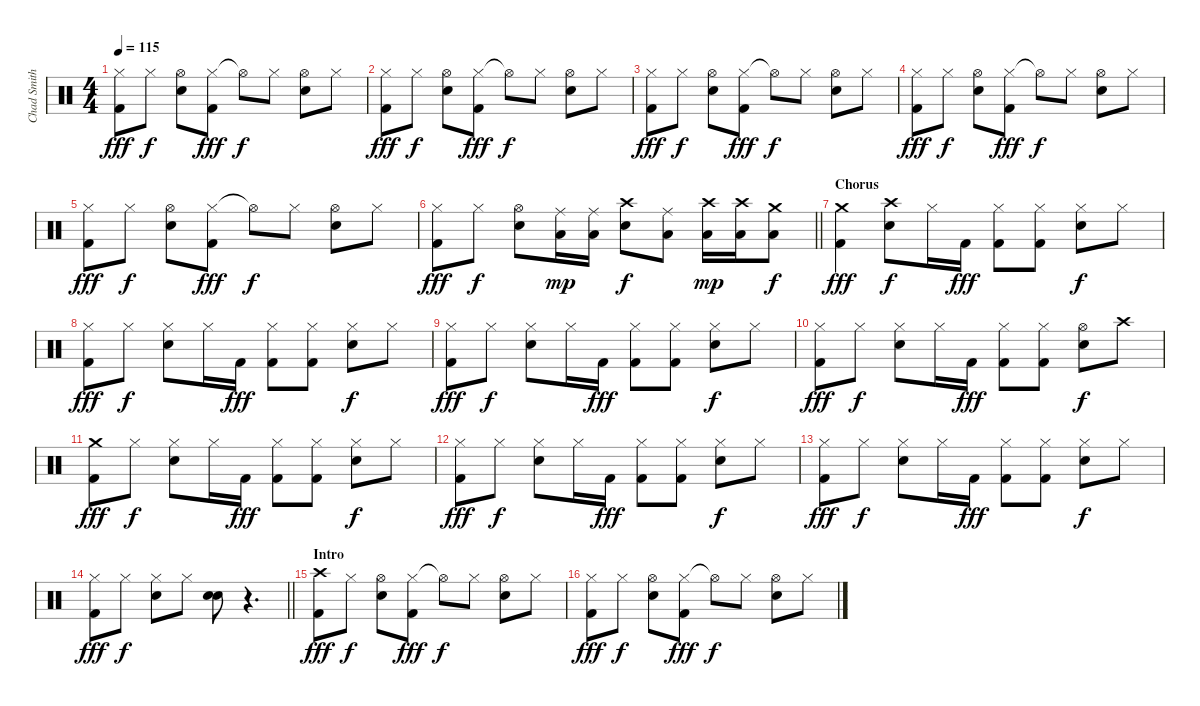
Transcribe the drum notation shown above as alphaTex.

\track ("Chad Smith - Drums" "Chad Smith") {instrument percussion}
\staff {score}
\articulation defaults
\ts (4 4)
\tempo 115
\clef neutral
\ks c
("Hi-Hat (closed)" "Kick (hit) 2").8{dy fff} "Hi-Hat (closed)".8{dy f} ("Hi-Hat (open)" "Electric Snare (hit)").8 ("Hi-Hat (closed)" "Kick (hit) 2").8{dy fff} "Hi-Hat (open)"{t}.8{dy f} "Hi-Hat (closed)".8 ("Hi-Hat (open)" "Electric Snare (hit)").8 "Hi-Hat (closed)".8 |
("Hi-Hat (closed)" "Kick (hit) 2").8{dy fff} "Hi-Hat (closed)".8{dy f} ("Hi-Hat (open)" "Electric Snare (hit)").8 ("Hi-Hat (closed)" "Kick (hit) 2").8{dy fff} "Hi-Hat (open)"{t}.8{dy f} "Hi-Hat (closed)".8 ("Hi-Hat (open)" "Electric Snare (hit)").8 "Hi-Hat (closed)".8 |
("Hi-Hat (closed)" "Kick (hit) 2").8{dy fff} "Hi-Hat (closed)".8{dy f} ("Hi-Hat (open)" "Electric Snare (hit)").8 ("Hi-Hat (closed)" "Kick (hit) 2").8{dy fff} "Hi-Hat (open)"{t}.8{dy f} "Hi-Hat (closed)".8 ("Hi-Hat (open)" "Electric Snare (hit)").8 "Hi-Hat (closed)".8 |
("Hi-Hat (closed)" "Kick (hit) 2").8{dy fff} "Hi-Hat (closed)".8{dy f} ("Hi-Hat (open)" "Electric Snare (hit)").8 ("Hi-Hat (closed)" "Kick (hit) 2").8{dy fff} "Hi-Hat (open)"{t}.8{dy f} "Hi-Hat (closed)".8 ("Hi-Hat (open)" "Electric Snare (hit)").8 "Hi-Hat (closed)".8 |
("Hi-Hat (closed)" "Kick (hit) 2").8{dy fff} "Hi-Hat (closed)".8{dy f} ("Hi-Hat (open)" "Electric Snare (hit)").8 ("Hi-Hat (closed)" "Kick (hit) 2").8{dy fff} "Hi-Hat (open)"{t}.8{dy f} "Hi-Hat (closed)".8 ("Hi-Hat (open)" "Electric Snare (hit)").8 "Hi-Hat (closed)".8 |
\barLineRight lightlight
("Hi-Hat (closed)" "Kick (hit) 2").8{dy fff} "Hi-Hat (closed)".8{dy f} ("Hi-Hat (open)" "Electric Snare (hit)").8 ("Ride (middle)" "Low Tom (hit)").16{dy mp} ("Ride (middle)" "Low Tom (hit)").16 ("Crash high (hit)" "Electric Snare (hit)").8{dy f} ("Ride (middle)" "Low Tom (hit)").8 ("Crash high (hit)" "Low Tom (hit)").16{dy mp} ("Crash high (hit)" "Low Tom (hit)").16 ("Crash medium (hit)" "Low Floor Tom (hit)").8{dy f} |
\section ("" "Chorus")
("Crash medium (hit)" "Kick (hit) 2").4{dy fff} ("Crash high (hit)" "Electric Snare (hit)").8{dy f} "Hi-Hat (closed)".16 "Kick (hit) 2".16{dy fff} ("Hi-Hat (closed)" "Kick (hit) 2").8 ("Hi-Hat (closed)" "Kick (hit) 2").8 ("Hi-Hat (closed)" "Electric Snare (hit)").8{dy f} "Hi-Hat (closed)".8 |
("Hi-Hat (closed)" "Kick (hit) 2").8{dy fff} "Hi-Hat (closed)".8{dy f} ("Hi-Hat (closed)" "Electric Snare (hit)").8 "Hi-Hat (closed)".16 "Kick (hit) 2".16{dy fff} ("Hi-Hat (closed)" "Kick (hit) 2").8 ("Hi-Hat (closed)" "Kick (hit) 2").8 ("Hi-Hat (closed)" "Electric Snare (hit)").8{dy f} "Hi-Hat (closed)".8 |
("Hi-Hat (closed)" "Kick (hit) 2").8{dy fff} "Hi-Hat (closed)".8{dy f} ("Hi-Hat (closed)" "Electric Snare (hit)").8 "Hi-Hat (closed)".16 "Kick (hit) 2".16{dy fff} ("Hi-Hat (closed)" "Kick (hit) 2").8 ("Hi-Hat (closed)" "Kick (hit) 2").8 ("Hi-Hat (closed)" "Electric Snare (hit)").8{dy f} "Hi-Hat (closed)".8 |
("Hi-Hat (closed)" "Kick (hit) 2").8{dy fff} "Hi-Hat (closed)".8{dy f} ("Hi-Hat (closed)" "Electric Snare (hit)").8 "Hi-Hat (closed)".16 "Kick (hit) 2".16{dy fff} ("Hi-Hat (closed)" "Kick (hit) 2").8 ("Hi-Hat (closed)" "Kick (hit) 2").8 ("Hi-Hat (open)" "Electric Snare (hit)").8{dy f} "Crash high (hit)".8 |
("Crash medium (hit)" "Kick (hit) 2").8{dy fff} "Hi-Hat (closed)".8{dy f} ("Hi-Hat (closed)" "Electric Snare (hit)").8 "Hi-Hat (closed)".16 "Kick (hit) 2".16{dy fff} ("Hi-Hat (closed)" "Kick (hit) 2").8 ("Hi-Hat (closed)" "Kick (hit) 2").8 ("Hi-Hat (closed)" "Electric Snare (hit)").8{dy f} "Hi-Hat (closed)".8 |
("Hi-Hat (closed)" "Kick (hit) 2").8{dy fff} "Hi-Hat (closed)".8{dy f} ("Hi-Hat (closed)" "Electric Snare (hit)").8 "Hi-Hat (closed)".16 "Kick (hit) 2".16{dy fff} ("Hi-Hat (closed)" "Kick (hit) 2").8 ("Hi-Hat (closed)" "Kick (hit) 2").8 ("Hi-Hat (closed)" "Electric Snare (hit)").8{dy f} "Hi-Hat (closed)".8 |
("Hi-Hat (closed)" "Kick (hit) 2").8{dy fff} "Hi-Hat (closed)".8{dy f} ("Hi-Hat (closed)" "Electric Snare (hit)").8 "Hi-Hat (closed)".16 "Kick (hit) 2".16{dy fff} ("Hi-Hat (closed)" "Kick (hit) 2").8 ("Hi-Hat (closed)" "Kick (hit) 2").8 ("Hi-Hat (closed)" "Electric Snare (hit)").8{dy f} "Hi-Hat (closed)".8 |
\barLineRight lightlight
("Hi-Hat (closed)" "Kick (hit) 2").8{dy fff} "Hi-Hat (closed)".8{dy f} ("Hi-Hat (closed)" "Electric Snare (hit)").8 "Hi-Hat (closed)".8 ("Electric Snare (hit)" "Electric Snare (hit)").8 r.4{d} |
\section ("" "Intro")
("Crash high (hit)" "Kick (hit) 2").8{dy fff} "Hi-Hat (closed)".8{dy f} ("Hi-Hat (open)" "Electric Snare (hit)").8 ("Hi-Hat (closed)" "Kick (hit) 2").8{dy fff} "Hi-Hat (open)"{t}.8{dy f} "Hi-Hat (closed)".8 ("Hi-Hat (open)" "Electric Snare (hit)").8 "Hi-Hat (closed)".8 |
("Hi-Hat (closed)" "Kick (hit) 2").8{dy fff} "Hi-Hat (closed)".8{dy f} ("Hi-Hat (open)" "Electric Snare (hit)").8 ("Hi-Hat (closed)" "Kick (hit) 2").8{dy fff} "Hi-Hat (open)"{t}.8{dy f} "Hi-Hat (closed)".8 ("Hi-Hat (open)" "Electric Snare (hit)").8 "Hi-Hat (closed)".8
